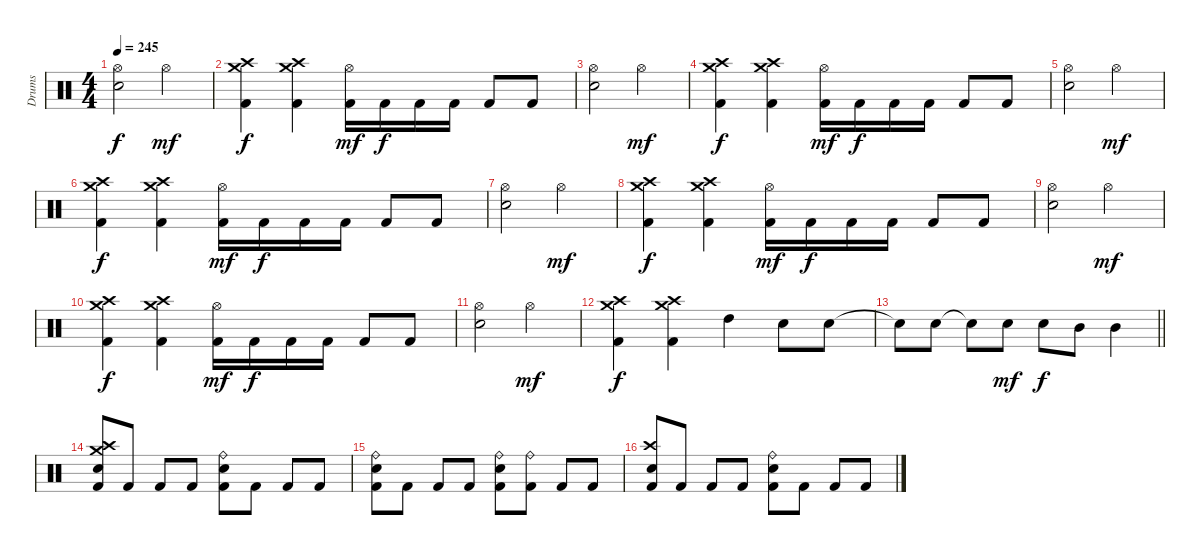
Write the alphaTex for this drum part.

\track ("Drums" "Drums") {instrument percussion}
\staff {score}
\articulation defaults
\ts (4 4)
\tempo 245
\clef neutral
\ks c
("Hi-Hat (open)" "Electric Snare (hit)").2{dy f} "Hi-Hat (open)".2{dy mf} |
("Crash high (hit)" "Crash medium (hit)" "Kick (hit) 2").4{dy f} ("Crash high (hit)" "Crash medium (hit)" "Kick (hit) 2").4 ("Hi-Hat (open)" "Kick (hit) 2").16{dy mf} "Kick (hit) 2".16{dy f} "Kick (hit) 2".16 "Kick (hit) 2".16 "Kick (hit) 2".8 "Kick (hit) 2".8 |
("Hi-Hat (open)" "Electric Snare (hit)").2 "Hi-Hat (open)".2{dy mf} |
("Crash high (hit)" "Crash medium (hit)" "Kick (hit) 2").4{dy f} ("Crash high (hit)" "Crash medium (hit)" "Kick (hit) 2").4 ("Hi-Hat (open)" "Kick (hit) 2").16{dy mf} "Kick (hit) 2".16{dy f} "Kick (hit) 2".16 "Kick (hit) 2".16 "Kick (hit) 2".8 "Kick (hit) 2".8 |
("Hi-Hat (open)" "Electric Snare (hit)").2 "Hi-Hat (open)".2{dy mf} |
("Crash high (hit)" "Crash medium (hit)" "Kick (hit) 2").4{dy f} ("Crash high (hit)" "Crash medium (hit)" "Kick (hit) 2").4 ("Hi-Hat (open)" "Kick (hit) 2").16{dy mf} "Kick (hit) 2".16{dy f} "Kick (hit) 2".16 "Kick (hit) 2".16 "Kick (hit) 2".8 "Kick (hit) 2".8 |
("Hi-Hat (open)" "Electric Snare (hit)").2 "Hi-Hat (open)".2{dy mf} |
("Crash high (hit)" "Crash medium (hit)" "Kick (hit) 2").4{dy f} ("Crash high (hit)" "Crash medium (hit)" "Kick (hit) 2").4 ("Hi-Hat (open)" "Kick (hit) 2").16{dy mf} "Kick (hit) 2".16{dy f} "Kick (hit) 2".16 "Kick (hit) 2".16 "Kick (hit) 2".8 "Kick (hit) 2".8 |
("Hi-Hat (open)" "Electric Snare (hit)").2 "Hi-Hat (open)".2{dy mf} |
("Crash high (hit)" "Crash medium (hit)" "Kick (hit) 2").4{dy f} ("Crash high (hit)" "Crash medium (hit)" "Kick (hit) 2").4 ("Hi-Hat (open)" "Kick (hit) 2").16{dy mf} "Kick (hit) 2".16{dy f} "Kick (hit) 2".16 "Kick (hit) 2".16 "Kick (hit) 2".8 "Kick (hit) 2".8 |
("Hi-Hat (open)" "Electric Snare (hit)").2 "Hi-Hat (open)".2{dy mf} |
("Crash high (hit)" "Crash medium (hit)" "Kick (hit) 2").4{dy f} ("Crash high (hit)" "Crash medium (hit)" "Kick (hit) 2").4 "High Tom (hit)".4 "Electric Snare (hit)".8 "Electric Snare (hit)".8 |
\barLineRight lightlight "Snare (hit)"{t}.8 "Electric Snare (hit)".8 "Snare (hit)"{t}.8 "Electric Snare (hit)".8{dy mf} "Electric Snare (hit)".8{dy f} "Mid Tom (hit)".8 "Mid Tom (hit)".4
|
("Crash high (hit)" "Crash medium (hit)" "Electric Snare (hit)" "Kick (hit) 2").8 "Kick (hit) 2".8 "Kick (hit) 2".8 "Kick (hit) 2".8 ("Ride (bell)" "Electric Snare (hit)" "Kick (hit) 2").8 "Kick (hit) 2".8 "Kick (hit) 2".8 "Kick (hit) 2".8 |
("Ride (bell)" "Electric Snare (hit)" "Kick (hit) 2").8 "Kick (hit) 2".8 "Kick (hit) 2".8 "Kick (hit) 2".8 ("Ride (bell)" "Electric Snare (hit)" "Kick (hit) 2").8 ("Ride (bell)" "Kick (hit) 2").8 "Kick (hit) 2".8 "Kick (hit) 2".8 |
("Crash high (hit)" "Electric Snare (hit)" "Kick (hit) 2").8 "Kick (hit) 2".8 "Kick (hit) 2".8 "Kick (hit) 2".8 ("Ride (bell)" "Electric Snare (hit)" "Kick (hit) 2").8 "Kick (hit) 2".8 "Kick (hit) 2".8 "Kick (hit) 2".8
